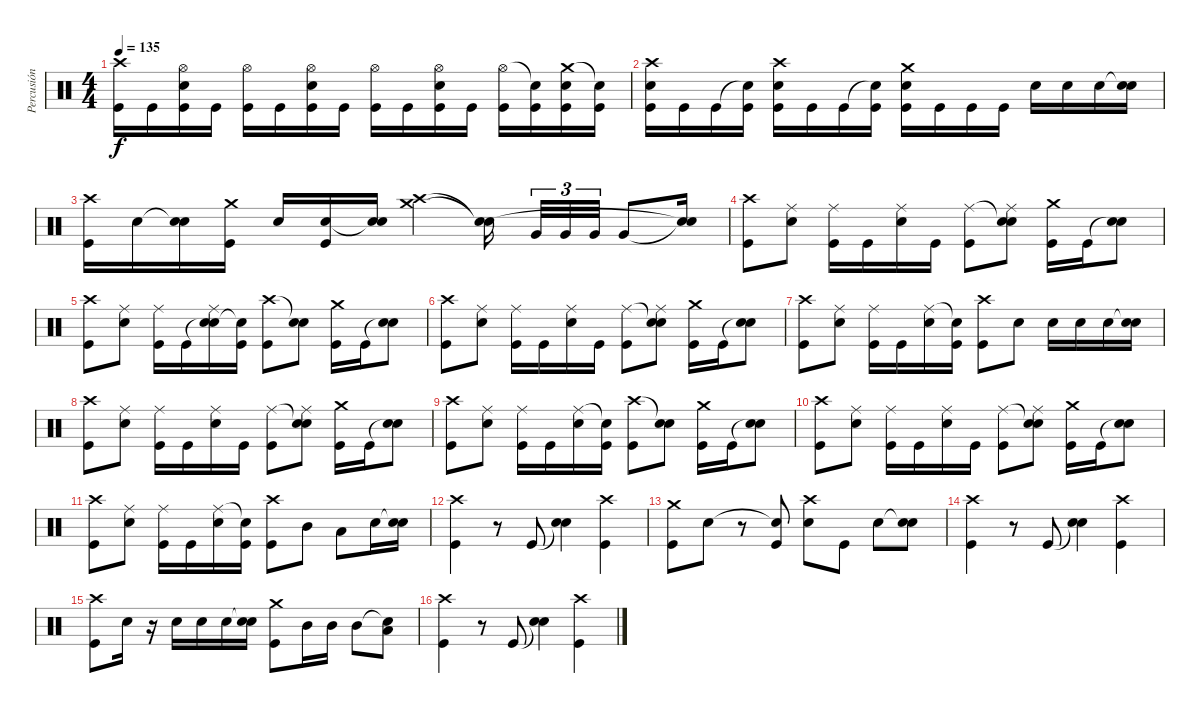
\track ("Percusión" "Percusión") {instrument percussion}
\staff {score}
\articulation defaults
\ts (4 4)
\tempo 135
\clef neutral
\ks c
("Crash high (hit)" "Kick (hit)").16{dy f} "Kick (hit)".16 ("Hi-Hat (open)" "Snare (hit) 2" "Kick (hit)").16 "Kick (hit)".16 ("Hi-Hat (open)" "Kick (hit)").16 "Kick (hit)".16 ("Hi-Hat (open)" "Snare (hit) 2" "Kick (hit)").16 "Kick (hit)".16 ("Hi-Hat (open)" "Kick (hit)").16 "Kick (hit)".16 ("Hi-Hat (open)" "Snare (hit) 2" "Kick (hit)").16 "Kick (hit)".16 ("Hi-Hat (open)" "Kick (hit)").16 ("Snare (hit)"{t} "Kick (hit)").16 ("Crash medium (hit)" "Snare (hit) 2" "Kick (hit)").16 ("Snare (hit)"{t} "Kick (hit)").16 |
("Crash high (hit)" "Snare (hit) 2" "Kick (hit)").16 "Kick (hit)".16 "Kick (hit)".16 ("Snare (hit)"{t} "Kick (hit)").16 ("Crash high (hit)" "Snare (hit) 2" "Kick (hit)").16 "Kick (hit)".16 "Kick (hit)".16 ("Snare (hit)"{t} "Kick (hit)").16 ("Crash medium (hit)" "Snare (hit) 2" "Kick (hit)").16 "Kick (hit)".16 "Kick (hit)".16 "Kick (hit)".16 "Snare (hit) 2".16 "Snare (hit) 2".16 "Snare (hit) 2".16 ("Snare (hit)"{t} "Snare (hit) 2").16 |
("Crash high (hit)" "Kick (hit)").16 "Snare (hit) 2".16 ("Snare (hit)"{t} "Snare (hit) 2").16 ("Crash medium (hit)" "Kick (hit)").16 "Snare (hit) 2".16 ("Snare (hit) 2" "Kick (hit)").16 ("Snare (hit)"{t} "Snare (hit) 2").16 ("Crash high (hit)" "Crash medium (hit)").4 ("Snare (hit)"{t} "Snare (hit)"{t}).16 "Very Low Tom (hit)".32{tu (3 2)} "Very Low Tom (hit)".32{tu (3 2)} "Very Low Tom (hit)".32{tu (3 2)} "Very Low Tom (hit)".8 ("Snare (hit)"{t} "Snare (hit)"{t}).16 |
("Crash high (hit)" "Kick (hit)").8 ("Ride (middle)" "Snare (hit) 2").8 ("Ride (middle)" "Kick (hit)").16 "Kick (hit)".16 ("Ride (middle)" "Snare (hit) 2").16 "Kick (hit)".16 ("Ride (middle)" "Kick (hit)").8 ("Snare (hit)"{t} "Ride (middle)" "Snare (hit) 2").8 ("Crash medium (hit)" "Kick (hit)").16 "Kick (hit)".16 ("Snare (hit)"{t} "Snare (hit) 2").8 |
("Crash high (hit)" "Kick (hit)").8 ("Ride (middle)" "Snare (hit) 2").8 ("Ride (middle)" "Kick (hit)").16 "Kick (hit)".16 ("Snare (hit)"{t} "Ride (middle)" "Snare (hit) 2").16 ("Snare (hit)"{t} "Kick (hit)").16 ("Crash high (hit)" "Kick (hit)").8 ("Snare (hit)"{t} "Snare (hit) 2").8 ("Crash medium (hit)" "Kick (hit)").16 "Kick (hit)".16 ("Snare (hit)"{t} "Snare (hit) 2").8 |
("Crash high (hit)" "Kick (hit)").8 ("Ride (middle)" "Snare (hit) 2").8 ("Ride (middle)" "Kick (hit)").16 "Kick (hit)".16 ("Ride (middle)" "Snare (hit) 2").16 "Kick (hit)".16 ("Ride (middle)" "Kick (hit)").8 ("Snare (hit)"{t} "Ride (middle)" "Snare (hit) 2").8 ("Crash medium (hit)" "Kick (hit)").16 "Kick (hit)".16 ("Snare (hit)"{t} "Snare (hit) 2").8 |
("Crash high (hit)" "Kick (hit)").8 ("Ride (middle)" "Snare (hit) 2").8 ("Ride (middle)" "Kick (hit)").16 "Kick (hit)".16 ("Ride (middle)" "Snare (hit) 2").16 ("Snare (hit)"{t} "Kick (hit)").16 ("Crash high (hit)" "Kick (hit)").8 "Snare (hit) 2".8 "Snare (hit) 2".16 "Snare (hit) 2".16 "Snare (hit) 2".16 ("Snare (hit)"{t} "Snare (hit) 2").16 |
("Crash high (hit)" "Kick (hit)").8 ("Ride (middle)" "Snare (hit) 2").8 ("Ride (middle)" "Kick (hit)").16 "Kick (hit)".16 ("Ride (middle)" "Snare (hit) 2").16 "Kick (hit)".16 ("Ride (middle)" "Kick (hit)").8 ("Snare (hit)"{t} "Ride (middle)" "Snare (hit) 2").8 ("Crash medium (hit)" "Kick (hit)").16 "Kick (hit)".16 ("Snare (hit)"{t} "Snare (hit) 2").8 |
("Crash high (hit)" "Kick (hit)").8 ("Ride (middle)" "Snare (hit) 2").8 ("Ride (middle)" "Kick (hit)").16 "Kick (hit)".16 ("Ride (middle)" "Snare (hit) 2").16 ("Snare (hit)"{t} "Kick (hit)").16 ("Crash high (hit)" "Kick (hit)").8 ("Snare (hit)"{t} "Snare (hit) 2").8 ("Crash medium (hit)" "Kick (hit)").16 "Kick (hit)".16 ("Snare (hit)"{t} "Snare (hit) 2").8 |
("Crash high (hit)" "Kick (hit)").8 ("Ride (middle)" "Snare (hit) 2").8 ("Ride (middle)" "Kick (hit)").16 "Kick (hit)".16 ("Ride (middle)" "Snare (hit) 2").16 "Kick (hit)".16 ("Ride (middle)" "Kick (hit)").8 ("Snare (hit)"{t} "Ride (middle)" "Snare (hit) 2").8 ("Crash medium (hit)" "Kick (hit)").16 "Kick (hit)".16 ("Snare (hit)"{t} "Snare (hit) 2").8 |
("Crash high (hit)" "Kick (hit)").8 ("Ride (middle)" "Snare (hit) 2").8 ("Ride (middle)" "Kick (hit)").16 "Kick (hit)".16 ("Ride (middle)" "Snare (hit) 2").16 ("Snare (hit)"{t} "Kick (hit)").16 ("Crash high (hit)" "Kick (hit)").8 "Mid Tom (hit)".8 "Low Tom (hit)".8 "Snare (hit) 2".16 ("Snare (hit)"{t} "Snare (hit) 2").16 |
("Crash high (hit)" "Kick (hit)").4 r.8 "Kick (hit)".8 ("Snare (hit)"{t} "Snare (hit) 2").4 ("Crash high (hit)" "Kick (hit)").4 |
("Crash medium (hit)" "Kick (hit)").8 "Snare (hit) 2".8 r.8 ("Snare (hit)"{t} "Kick (hit)").8 ("Crash high (hit)" "Snare (hit) 2").8 "Kick (hit)".8 "Snare (hit) 2".8 ("Snare (hit)"{t} "Snare (hit) 2").8 |
("Crash high (hit)" "Kick (hit)").4 r.8 "Kick (hit)".8 ("Snare (hit)"{t} "Snare (hit) 2").4 ("Crash high (hit)" "Kick (hit)").4 |
("Crash high (hit)" "Kick (hit)").8 "Snare (hit) 2".16 r.16 "Snare (hit) 2".16 "Snare (hit) 2".16 "Snare (hit) 2".16 ("Snare (hit)"{t} "Snare (hit) 2").16 ("Crash medium (hit)" "Kick (hit)").8 "Mid Tom (hit)".16 "Mid Tom (hit)".16 "Mid Tom (hit)".8 ("Snare (hit)"{t} "Low Tom (hit)").8 |
("Crash high (hit)" "Kick (hit)").4 r.8 "Kick (hit)".8 ("Snare (hit)"{t} "Snare (hit) 2").4 ("Crash high (hit)" "Kick (hit)").4
